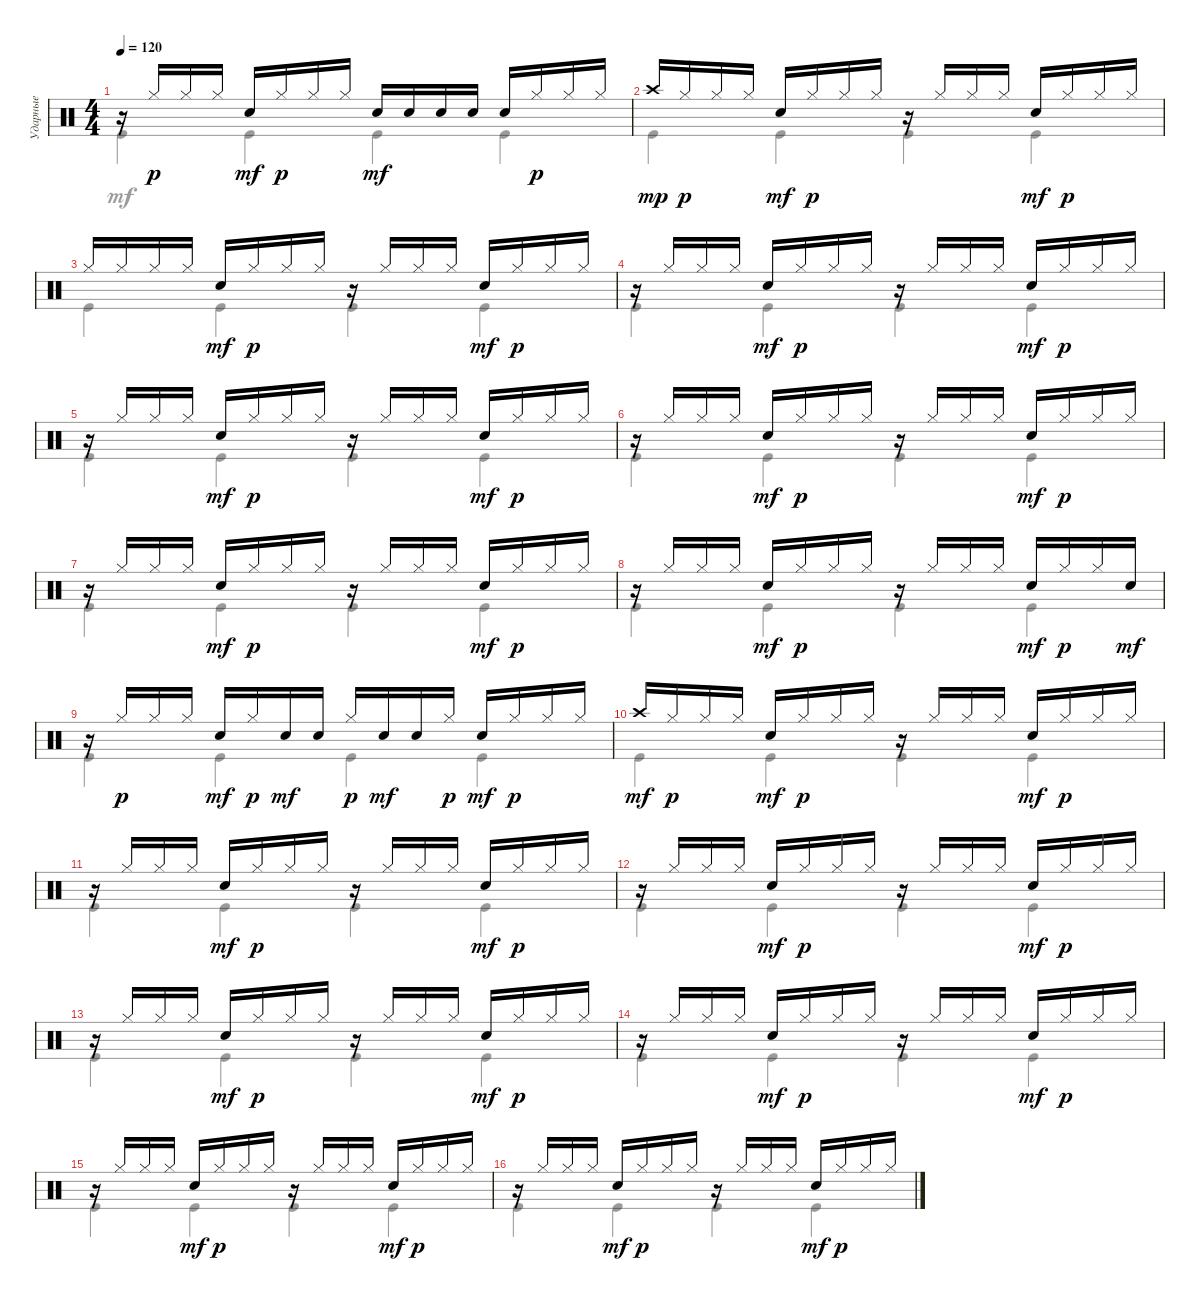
\track ("Ударные" "Ударные") {instrument percussion}
\staff {score}
\articulation defaults
\voice
\ts (4 4)
\tempo 120
\clef neutral
\ks c
r.16{dy p} "Hi-Hat (closed)".16 "Hi-Hat (closed)".16 "Hi-Hat (closed)".16 "Snare (hit) 2".16{dy mf} "Hi-Hat (closed)".16{dy p} "Hi-Hat (closed)".16 "Hi-Hat (closed)".16 "Snare (hit) 2".16{dy mf} "Snare (hit) 2".16 "Snare (hit) 2".16 "Snare (hit) 2".16 "Snare (hit) 2".16 "Hi-Hat (closed)".16{dy p} "Hi-Hat (closed)".16 "Hi-Hat (closed)".16 |
"Crash high (hit)".16{dy mp} "Hi-Hat (closed)".16{dy p} "Hi-Hat (closed)".16 "Hi-Hat (closed)".16 "Snare (hit) 2".16{dy mf} "Hi-Hat (closed)".16{dy p} "Hi-Hat (closed)".16 "Hi-Hat (closed)".16 r.16 "Hi-Hat (closed)".16 "Hi-Hat (closed)".16 "Hi-Hat (closed)".16 "Snare (hit) 2".16{dy mf} "Hi-Hat (closed)".16{dy p} "Hi-Hat (closed)".16 "Hi-Hat (closed)".16 |
"Hi-Hat (closed)".16 "Hi-Hat (closed)".16 "Hi-Hat (closed)".16 "Hi-Hat (closed)".16 "Snare (hit) 2".16{dy mf} "Hi-Hat (closed)".16{dy p} "Hi-Hat (closed)".16 "Hi-Hat (closed)".16 r.16 "Hi-Hat (closed)".16 "Hi-Hat (closed)".16 "Hi-Hat (closed)".16 "Snare (hit) 2".16{dy mf} "Hi-Hat (closed)".16{dy p} "Hi-Hat (closed)".16 "Hi-Hat (closed)".16 |
r.16 "Hi-Hat (closed)".16 "Hi-Hat (closed)".16 "Hi-Hat (closed)".16 "Snare (hit) 2".16{dy mf} "Hi-Hat (closed)".16{dy p} "Hi-Hat (closed)".16 "Hi-Hat (closed)".16 r.16 "Hi-Hat (closed)".16 "Hi-Hat (closed)".16 "Hi-Hat (closed)".16 "Snare (hit) 2".16{dy mf} "Hi-Hat (closed)".16{dy p} "Hi-Hat (closed)".16 "Hi-Hat (closed)".16 |
r.16 "Hi-Hat (closed)".16 "Hi-Hat (closed)".16 "Hi-Hat (closed)".16 "Snare (hit) 2".16{dy mf} "Hi-Hat (closed)".16{dy p} "Hi-Hat (closed)".16 "Hi-Hat (closed)".16 r.16 "Hi-Hat (closed)".16 "Hi-Hat (closed)".16 "Hi-Hat (closed)".16 "Snare (hit) 2".16{dy mf} "Hi-Hat (closed)".16{dy p} "Hi-Hat (closed)".16 "Hi-Hat (closed)".16 |
r.16 "Hi-Hat (closed)".16 "Hi-Hat (closed)".16 "Hi-Hat (closed)".16 "Snare (hit) 2".16{dy mf} "Hi-Hat (closed)".16{dy p} "Hi-Hat (closed)".16 "Hi-Hat (closed)".16 r.16 "Hi-Hat (closed)".16 "Hi-Hat (closed)".16 "Hi-Hat (closed)".16 "Snare (hit) 2".16{dy mf} "Hi-Hat (closed)".16{dy p} "Hi-Hat (closed)".16 "Hi-Hat (closed)".16 |
r.16 "Hi-Hat (closed)".16 "Hi-Hat (closed)".16 "Hi-Hat (closed)".16 "Snare (hit) 2".16{dy mf} "Hi-Hat (closed)".16{dy p} "Hi-Hat (closed)".16 "Hi-Hat (closed)".16 r.16 "Hi-Hat (closed)".16 "Hi-Hat (closed)".16 "Hi-Hat (closed)".16 "Snare (hit) 2".16{dy mf} "Hi-Hat (closed)".16{dy p} "Hi-Hat (closed)".16 "Hi-Hat (closed)".16 |
r.16 "Hi-Hat (closed)".16 "Hi-Hat (closed)".16 "Hi-Hat (closed)".16 "Snare (hit) 2".16{dy mf} "Hi-Hat (closed)".16{dy p} "Hi-Hat (closed)".16 "Hi-Hat (closed)".16 r.16 "Hi-Hat (closed)".16 "Hi-Hat (closed)".16 "Hi-Hat (closed)".16 "Snare (hit) 2".16{dy mf} "Hi-Hat (closed)".16{dy p} "Hi-Hat (closed)".16 "Snare (hit) 2".16{dy mf} |
r.16 "Hi-Hat (closed)".16{dy p} "Hi-Hat (closed)".16 "Hi-Hat (closed)".16 "Snare (hit) 2".16{dy mf} "Hi-Hat (closed)".16{dy p} "Snare (hit) 2".16{dy mf} "Snare (hit) 2".16 "Hi-Hat (closed)".16{dy p} "Snare (hit) 2".16{dy mf} "Snare (hit) 2".16 "Hi-Hat (closed)".16{dy p} "Snare (hit) 2".16{dy mf} "Hi-Hat (closed)".16{dy p} "Hi-Hat (closed)".16 "Hi-Hat (closed)".16 |
"Crash high (hit)".16{dy mf} "Hi-Hat (closed)".16{dy p} "Hi-Hat (closed)".16 "Hi-Hat (closed)".16 "Snare (hit) 2".16{dy mf} "Hi-Hat (closed)".16{dy p} "Hi-Hat (closed)".16 "Hi-Hat (closed)".16 r.16 "Hi-Hat (closed)".16 "Hi-Hat (closed)".16 "Hi-Hat (closed)".16 "Snare (hit) 2".16{dy mf} "Hi-Hat (closed)".16{dy p} "Hi-Hat (closed)".16 "Hi-Hat (closed)".16 |
r.16 "Hi-Hat (closed)".16 "Hi-Hat (closed)".16 "Hi-Hat (closed)".16 "Snare (hit) 2".16{dy mf} "Hi-Hat (closed)".16{dy p} "Hi-Hat (closed)".16 "Hi-Hat (closed)".16 r.16 "Hi-Hat (closed)".16 "Hi-Hat (closed)".16 "Hi-Hat (closed)".16 "Snare (hit) 2".16{dy mf} "Hi-Hat (closed)".16{dy p} "Hi-Hat (closed)".16 "Hi-Hat (closed)".16 |
r.16 "Hi-Hat (closed)".16 "Hi-Hat (closed)".16 "Hi-Hat (closed)".16 "Snare (hit) 2".16{dy mf} "Hi-Hat (closed)".16{dy p} "Hi-Hat (closed)".16 "Hi-Hat (closed)".16 r.16 "Hi-Hat (closed)".16 "Hi-Hat (closed)".16 "Hi-Hat (closed)".16 "Snare (hit) 2".16{dy mf} "Hi-Hat (closed)".16{dy p} "Hi-Hat (closed)".16 "Hi-Hat (closed)".16 |
r.16 "Hi-Hat (closed)".16 "Hi-Hat (closed)".16 "Hi-Hat (closed)".16 "Snare (hit) 2".16{dy mf} "Hi-Hat (closed)".16{dy p} "Hi-Hat (closed)".16 "Hi-Hat (closed)".16 r.16 "Hi-Hat (closed)".16 "Hi-Hat (closed)".16 "Hi-Hat (closed)".16 "Snare (hit) 2".16{dy mf} "Hi-Hat (closed)".16{dy p} "Hi-Hat (closed)".16 "Hi-Hat (closed)".16 |
r.16 "Hi-Hat (closed)".16 "Hi-Hat (closed)".16 "Hi-Hat (closed)".16 "Snare (hit) 2".16{dy mf} "Hi-Hat (closed)".16{dy p} "Hi-Hat (closed)".16 "Hi-Hat (closed)".16 r.16 "Hi-Hat (closed)".16 "Hi-Hat (closed)".16 "Hi-Hat (closed)".16 "Snare (hit) 2".16{dy mf} "Hi-Hat (closed)".16{dy p} "Hi-Hat (closed)".16 "Hi-Hat (closed)".16 |
r.16 "Hi-Hat (closed)".16 "Hi-Hat (closed)".16 "Hi-Hat (closed)".16 "Snare (hit) 2".16{dy mf} "Hi-Hat (closed)".16{dy p} "Hi-Hat (closed)".16 "Hi-Hat (closed)".16 r.16 "Hi-Hat (closed)".16 "Hi-Hat (closed)".16 "Hi-Hat (closed)".16 "Snare (hit) 2".16{dy mf} "Hi-Hat (closed)".16{dy p} "Hi-Hat (closed)".16 "Hi-Hat (closed)".16 |
r.16 "Hi-Hat (closed)".16 "Hi-Hat (closed)".16 "Hi-Hat (closed)".16 "Snare (hit) 2".16{dy mf} "Hi-Hat (closed)".16{dy p} "Hi-Hat (closed)".16 "Hi-Hat (closed)".16 r.16 "Hi-Hat (closed)".16 "Hi-Hat (closed)".16 "Hi-Hat (closed)".16 "Snare (hit) 2".16{dy mf} "Hi-Hat (closed)".16{dy p} "Hi-Hat (closed)".16 "Hi-Hat (closed)".16
\voice
\clef neutral
\ottava regular
\simile none
\ks c "Kick (hit)".4{dy mf} "Kick (hit)".4 "Kick (hit)".4 "Kick (hit)".4
|
"Kick (hit)".4 "Kick (hit)".4 "Kick (hit)".4 "Kick (hit)".4 |
"Kick (hit)".4 "Kick (hit)".4 "Kick (hit)".4 "Kick (hit)".4 |
"Kick (hit)".4 "Kick (hit)".4 "Kick (hit)".4 "Kick (hit)".4 |
"Kick (hit)".4 "Kick (hit)".4 "Kick (hit)".4 "Kick (hit)".4 |
"Kick (hit)".4 "Kick (hit)".4 "Kick (hit)".4 "Kick (hit)".4 |
"Kick (hit)".4 "Kick (hit)".4 "Kick (hit)".4 "Kick (hit)".4 |
"Kick (hit)".4 "Kick (hit)".4 "Kick (hit)".4 "Kick (hit)".4 |
"Kick (hit)".4 "Kick (hit)".4 "Kick (hit)".4 "Kick (hit)".4 |
"Kick (hit)".4 "Kick (hit)".4 "Kick (hit)".4 "Kick (hit)".4 |
"Kick (hit)".4 "Kick (hit)".4 "Kick (hit)".4 "Kick (hit)".4 |
"Kick (hit)".4 "Kick (hit)".4 "Kick (hit)".4 "Kick (hit)".4 |
"Kick (hit)".4 "Kick (hit)".4 "Kick (hit)".4 "Kick (hit)".4 |
"Kick (hit)".4 "Kick (hit)".4 "Kick (hit)".4 "Kick (hit)".4 |
"Kick (hit)".4 "Kick (hit)".4 "Kick (hit)".4 "Kick (hit)".4 |
"Kick (hit)".4 "Kick (hit)".4 "Kick (hit)".4 "Kick (hit)".4
